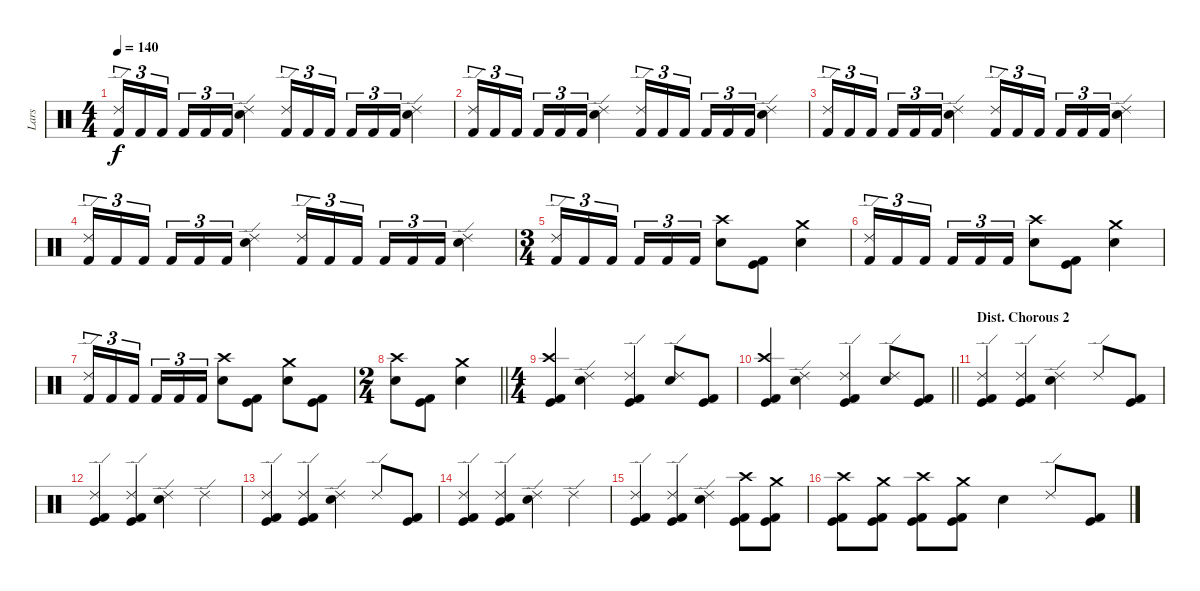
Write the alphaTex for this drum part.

\track ("Lars" "Lars") {instrument percussion}
\staff {score}
\articulation defaults
\ts (4 4)
\section ("" "")
\tempo 140
\clef neutral
\ks c
("Ride (edge) 2" "Kick (hit) 2").16{tu (3 2) dy f} "Kick (hit) 2".16{tu (3 2)} "Kick (hit) 2".16{tu (3 2) beam splitsecondary} "Kick (hit) 2".16{tu (3 2)} "Kick (hit) 2".16{tu (3 2)} "Kick (hit) 2".16{tu (3 2)} ("Ride (edge) 2" "Electric Snare (hit)").4 ("Ride (edge) 2" "Kick (hit) 2").16{tu (3 2)} "Kick (hit) 2".16{tu (3 2)} "Kick (hit) 2".16{tu (3 2) beam splitsecondary} "Kick (hit) 2".16{tu (3 2)} "Kick (hit) 2".16{tu (3 2)} "Kick (hit) 2".16{tu (3 2)} ("Ride (edge) 2" "Electric Snare (hit)").4 |
("Ride (edge) 2" "Kick (hit) 2").16{tu (3 2)} "Kick (hit) 2".16{tu (3 2)} "Kick (hit) 2".16{tu (3 2) beam splitsecondary} "Kick (hit) 2".16{tu (3 2)} "Kick (hit) 2".16{tu (3 2)} "Kick (hit) 2".16{tu (3 2)} ("Ride (edge) 2" "Electric Snare (hit)").4 ("Ride (edge) 2" "Kick (hit) 2").16{tu (3 2)} "Kick (hit) 2".16{tu (3 2)} "Kick (hit) 2".16{tu (3 2) beam splitsecondary} "Kick (hit) 2".16{tu (3 2)} "Kick (hit) 2".16{tu (3 2)} "Kick (hit) 2".16{tu (3 2)} ("Ride (edge) 2" "Electric Snare (hit)").4 |
("Ride (edge) 2" "Kick (hit) 2").16{tu (3 2)} "Kick (hit) 2".16{tu (3 2)} "Kick (hit) 2".16{tu (3 2) beam splitsecondary} "Kick (hit) 2".16{tu (3 2)} "Kick (hit) 2".16{tu (3 2)} "Kick (hit) 2".16{tu (3 2)} ("Ride (edge) 2" "Electric Snare (hit)").4 ("Ride (edge) 2" "Kick (hit) 2").16{tu (3 2)} "Kick (hit) 2".16{tu (3 2)} "Kick (hit) 2".16{tu (3 2) beam splitsecondary} "Kick (hit) 2".16{tu (3 2)} "Kick (hit) 2".16{tu (3 2)} "Kick (hit) 2".16{tu (3 2)} ("Ride (edge) 2" "Electric Snare (hit)").4 |
("Ride (edge) 2" "Kick (hit) 2").16{tu (3 2)} "Kick (hit) 2".16{tu (3 2)} "Kick (hit) 2".16{tu (3 2) beam splitsecondary} "Kick (hit) 2".16{tu (3 2)} "Kick (hit) 2".16{tu (3 2)} "Kick (hit) 2".16{tu (3 2)} ("Ride (edge) 2" "Electric Snare (hit)").4 ("Ride (edge) 2" "Kick (hit) 2").16{tu (3 2)} "Kick (hit) 2".16{tu (3 2)} "Kick (hit) 2".16{tu (3 2) beam splitsecondary} "Kick (hit) 2".16{tu (3 2)} "Kick (hit) 2".16{tu (3 2)} "Kick (hit) 2".16{tu (3 2)} ("Ride (edge) 2" "Electric Snare (hit)").4 |
\ts (3 4)
("Ride (edge) 2" "Kick (hit) 2").16{tu (3 2)} "Kick (hit) 2".16{tu (3 2)} "Kick (hit) 2".16{tu (3 2) beam splitsecondary} "Kick (hit) 2".16{tu (3 2)} "Kick (hit) 2".16{tu (3 2)} "Kick (hit) 2".16{tu (3 2)} ("Crash high (hit)" "Electric Snare (hit)").8 ("Kick (hit)" "Kick (hit) 2").8 ("Crash medium (hit)" "Electric Snare (hit)").4 |
("Ride (edge) 2" "Kick (hit) 2").16{tu (3 2)} "Kick (hit) 2".16{tu (3 2)} "Kick (hit) 2".16{tu (3 2) beam splitsecondary} "Kick (hit) 2".16{tu (3 2)} "Kick (hit) 2".16{tu (3 2)} "Kick (hit) 2".16{tu (3 2)} ("Crash high (hit)" "Electric Snare (hit)").8 ("Kick (hit)" "Kick (hit) 2").8 ("Crash medium (hit)" "Electric Snare (hit)").4 |
("Ride (edge) 2" "Kick (hit) 2").16{tu (3 2)} "Kick (hit) 2".16{tu (3 2)} "Kick (hit) 2".16{tu (3 2) beam splitsecondary} "Kick (hit) 2".16{tu (3 2)} "Kick (hit) 2".16{tu (3 2)} "Kick (hit) 2".16{tu (3 2)} ("Crash high (hit)" "Electric Snare (hit)").8 ("Kick (hit)" "Kick (hit) 2").8 ("Crash medium (hit)" "Electric Snare (hit)").8 ("Kick (hit)" "Kick (hit) 2").8 |
\ts (2 4)
\barLineRight lightlight
("Crash high (hit)" "Electric Snare (hit)").8 ("Kick (hit)" "Kick (hit) 2").8 ("Crash medium (hit)" "Electric Snare (hit)").4 |
\ts (4 4)
\section ("" "")
("Crash high (hit)" "Kick (hit)" "Kick (hit) 2").4 ("Ride (edge) 2" "Electric Snare (hit)").4 ("Ride (edge) 2" "Kick (hit)" "Kick (hit) 2").4 ("Ride (edge) 2" "Electric Snare (hit)").8 ("Kick (hit)" "Kick (hit) 2").8 |
\barLineRight lightlight
("Crash high (hit)" "Kick (hit)" "Kick (hit) 2").4 ("Ride (edge) 2" "Electric Snare (hit)").4 ("Ride (edge) 2" "Kick (hit)" "Kick (hit) 2").4 ("Ride (edge) 2" "Electric Snare (hit)").8 ("Kick (hit)" "Kick (hit) 2").8 |
\section ("" "Dist. Chorous 2")
("Ride (edge) 2" "Kick (hit)" "Kick (hit) 2").4 ("Ride (edge) 2" "Kick (hit)" "Kick (hit) 2").4 ("Ride (edge) 2" "Electric Snare (hit)").4 "Ride (edge) 2".8 ("Kick (hit)" "Kick (hit) 2").8 |
("Ride (edge) 2" "Kick (hit)" "Kick (hit) 2").4 ("Ride (edge) 2" "Kick (hit)" "Kick (hit) 2").4 ("Ride (edge) 2" "Electric Snare (hit)").4 "Ride (edge) 2".4 |
("Ride (edge) 2" "Kick (hit)" "Kick (hit) 2").4 ("Ride (edge) 2" "Kick (hit)" "Kick (hit) 2").4 ("Ride (edge) 2" "Electric Snare (hit)").4 "Ride (edge) 2".8 ("Kick (hit)" "Kick (hit) 2").8 |
("Ride (edge) 2" "Kick (hit)" "Kick (hit) 2").4 ("Ride (edge) 2" "Kick (hit)" "Kick (hit) 2").4 ("Ride (edge) 2" "Electric Snare (hit)").4 "Ride (edge) 2".4 |
("Ride (edge) 2" "Kick (hit)" "Kick (hit) 2").4 ("Ride (edge) 2" "Kick (hit)" "Kick (hit) 2").4 ("Ride (edge) 2" "Electric Snare (hit)").4 ("Crash high (hit)" "Kick (hit)" "Kick (hit) 2").8 ("Crash medium (hit)" "Kick (hit)" "Kick (hit) 2").8 |
("Crash high (hit)" "Kick (hit)" "Kick (hit) 2").8 ("Crash medium (hit)" "Kick (hit)" "Kick (hit) 2").8 ("Crash high (hit)" "Kick (hit)" "Kick (hit) 2").8 ("Crash medium (hit)" "Kick (hit)" "Kick (hit) 2").8 "Electric Snare (hit)".4 "Ride (edge) 2".8 ("Kick (hit)" "Kick (hit) 2").8
